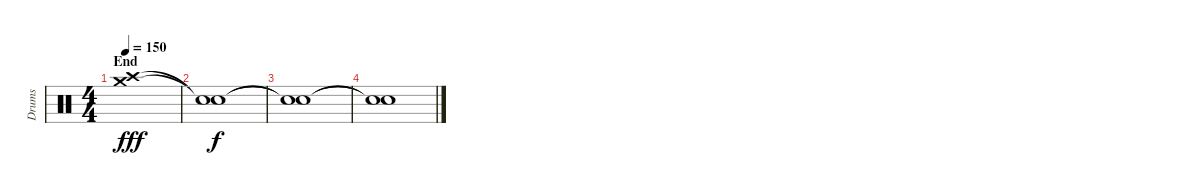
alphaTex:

\track ("Drums" "Drums") {instrument percussion}
\staff {score}
\articulation defaults
\ts (4 4)
\section ("" "End")
\tempo 150
\clef neutral
\ks c
("Crash high (hit)" "Crash medium (hit)").1{dy fff} |
("Snare (hit)"{t} "Snare (hit)"{t}).1{dy f} |
("Snare (hit)"{t} "Snare (hit)"{t}).1 |
("Snare (hit)"{t} "Snare (hit)"{t}).1
